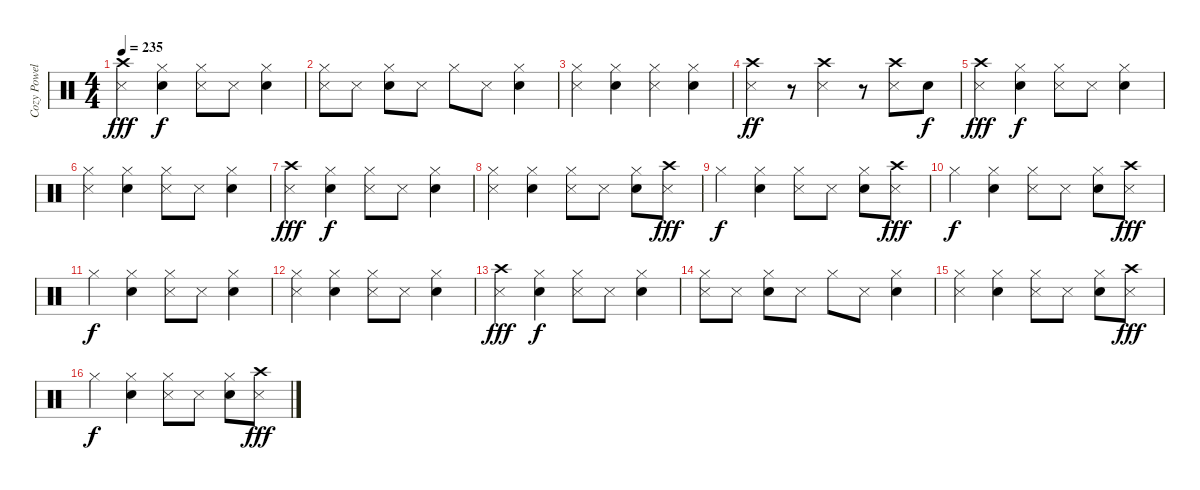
\track ("Cozy Powell" "Cozy Powel") {instrument percussion}
\staff {score}
\articulation defaults
\ts (4 4)
\tempo 235
\clef neutral
\ks c
("Crash high (hit)" "Metronome (hit)").4{dy fff} ("Electric Snare (hit)" "Hi-Hat (closed)").4{dy f} ("Hi-Hat (closed)" "Metronome (hit)").8 "Metronome (hit)".8 ("Electric Snare (hit)" "Hi-Hat (closed)").4 |
("Metronome (hit)" "Hi-Hat (closed)").8 "Metronome (hit)".8 ("Electric Snare (hit)" "Hi-Hat (closed)").8 "Metronome (hit)".8 "Hi-Hat (closed)".8 "Metronome (hit)".8 ("Electric Snare (hit)" "Hi-Hat (closed)").4 |
("Hi-Hat (closed)" "Metronome (hit)").4 ("Electric Snare (hit)" "Hi-Hat (closed)").4 ("Metronome (hit)" "Hi-Hat (closed)").4 ("Hi-Hat (closed)" "Electric Snare (hit)").4 |
("Metronome (hit)" "Crash high (hit)").4{dy ff} r.8 ("Metronome (hit)" "Crash high (hit)").4 r.8 ("Metronome (hit)" "Crash high (hit)").8 "Electric Snare (hit)".8{dy f} |
("Crash high (hit)" "Metronome (hit)").4{dy fff} ("Electric Snare (hit)" "Hi-Hat (closed)").4{dy f} ("Metronome (hit)" "Hi-Hat (closed)").8 "Metronome (hit)".8 ("Electric Snare (hit)" "Hi-Hat (closed)").4 |
("Hi-Hat (closed)" "Metronome (hit)").4 ("Hi-Hat (closed)" "Electric Snare (hit)").4 ("Metronome (hit)" "Hi-Hat (closed)").8 "Metronome (hit)".8 ("Electric Snare (hit)" "Hi-Hat (closed)").4 |
("Metronome (hit)" "Crash high (hit)").4{dy fff} ("Hi-Hat (closed)" "Electric Snare (hit)").4{dy f} ("Metronome (hit)" "Hi-Hat (closed)").8 "Metronome (hit)".8 ("Hi-Hat (closed)" "Electric Snare (hit)").4 |
("Hi-Hat (closed)" "Metronome (hit)").4 ("Electric Snare (hit)" "Hi-Hat (closed)").4 ("Metronome (hit)" "Hi-Hat (closed)").8 "Metronome (hit)".8 ("Hi-Hat (closed)" "Electric Snare (hit)").8 ("Crash high (hit)" "Metronome (hit)").8{dy fff} |
"Hi-Hat (closed)".4{dy f} ("Hi-Hat (closed)" "Electric Snare (hit)").4 ("Metronome (hit)" "Hi-Hat (closed)").8 "Metronome (hit)".8 ("Hi-Hat (closed)" "Electric Snare (hit)").8 ("Crash high (hit)" "Metronome (hit)").8{dy fff} |
"Hi-Hat (closed)".4{dy f} ("Electric Snare (hit)" "Hi-Hat (closed)").4 ("Hi-Hat (closed)" "Metronome (hit)").8 "Metronome (hit)".8 ("Hi-Hat (closed)" "Electric Snare (hit)").8 ("Metronome (hit)" "Crash high (hit)").8{dy fff} |
"Hi-Hat (closed)".4{dy f} ("Electric Snare (hit)" "Hi-Hat (closed)").4 ("Hi-Hat (closed)" "Metronome (hit)").8 "Metronome (hit)".8 ("Hi-Hat (closed)" "Electric Snare (hit)").4 |
("Metronome (hit)" "Hi-Hat (closed)").4 ("Electric Snare (hit)" "Hi-Hat (closed)").4 ("Metronome (hit)" "Hi-Hat (closed)").8 "Metronome (hit)".8 ("Hi-Hat (closed)" "Electric Snare (hit)").4 |
("Crash high (hit)" "Metronome (hit)").4{dy fff} ("Electric Snare (hit)" "Hi-Hat (closed)").4{dy f} ("Hi-Hat (closed)" "Metronome (hit)").8 "Metronome (hit)".8 ("Hi-Hat (closed)" "Electric Snare (hit)").4 |
("Metronome (hit)" "Hi-Hat (closed)").8 "Metronome (hit)".8 ("Electric Snare (hit)" "Hi-Hat (closed)").8 "Metronome (hit)".8 "Hi-Hat (closed)".8 "Metronome (hit)".8 ("Electric Snare (hit)" "Hi-Hat (closed)").4 |
("Hi-Hat (closed)" "Metronome (hit)").4 ("Hi-Hat (closed)" "Electric Snare (hit)").4 ("Metronome (hit)" "Hi-Hat (closed)").8 "Metronome (hit)".8 ("Electric Snare (hit)" "Hi-Hat (closed)").8 ("Metronome (hit)" "Crash high (hit)").8{dy fff} |
"Hi-Hat (closed)".4{dy f} ("Hi-Hat (closed)" "Electric Snare (hit)").4 ("Hi-Hat (closed)" "Metronome (hit)").8 "Metronome (hit)".8 ("Hi-Hat (closed)" "Electric Snare (hit)").8 ("Crash high (hit)" "Metronome (hit)").8{dy fff}
